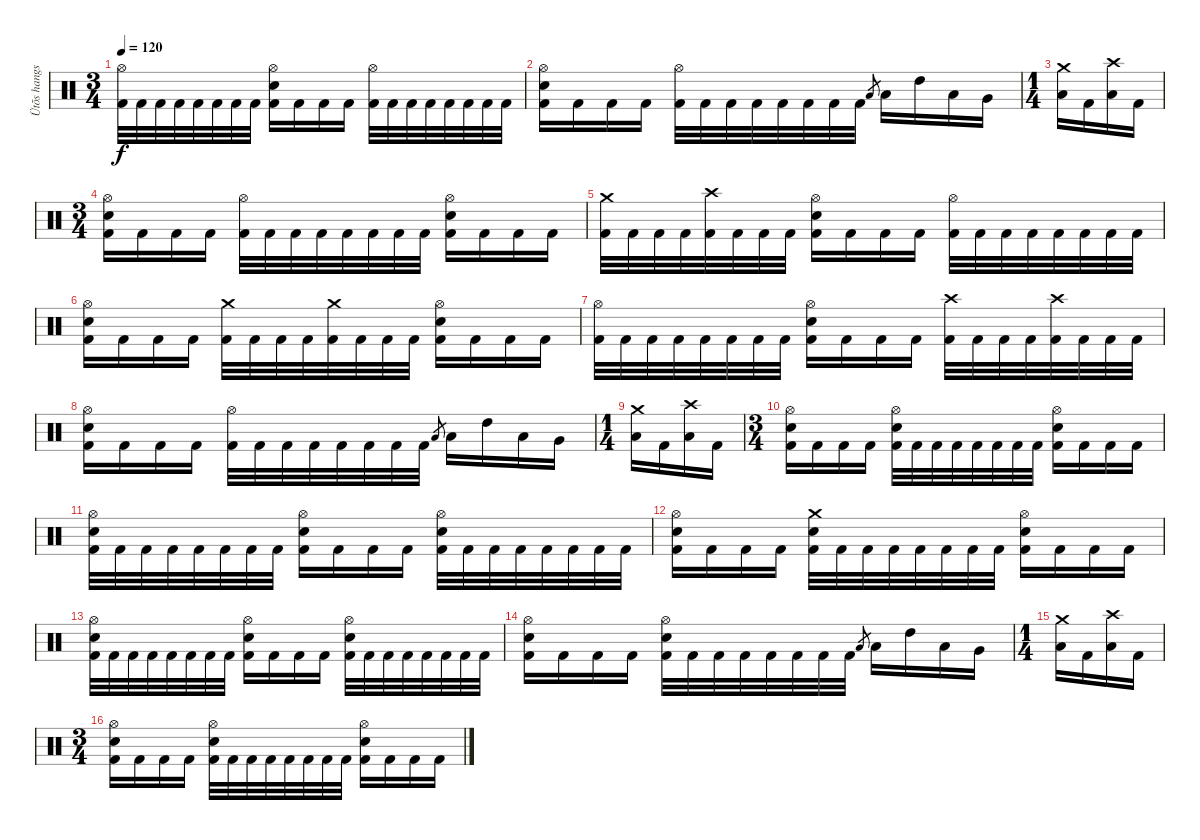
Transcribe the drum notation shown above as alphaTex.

\track ("Ütõs hangszer" "Ütõs hangs") {instrument percussion}
\staff {score}
\articulation defaults
\ts (3 4)
\tempo 120
\clef neutral
\ks c
("Hi-Hat (open)" "Kick (hit) 2").32{dy f} "Kick (hit) 2".32 "Kick (hit) 2".32 "Kick (hit) 2".32 "Kick (hit) 2".32 "Kick (hit) 2".32 "Kick (hit) 2".32 "Kick (hit) 2".32 ("Hi-Hat (open)" "Electric Snare (hit)" "Kick (hit) 2").16 "Kick (hit) 2".16 "Kick (hit) 2".16 "Kick (hit) 2".16 ("Hi-Hat (open)" "Kick (hit) 2").32 "Kick (hit) 2".32 "Kick (hit) 2".32 "Kick (hit) 2".32 "Kick (hit) 2".32 "Kick (hit) 2".32 "Kick (hit) 2".32 "Kick (hit) 2".32 |
("Hi-Hat (open)" "Electric Snare (hit)" "Kick (hit) 2").16 "Kick (hit) 2".16 "Kick (hit) 2".16 "Kick (hit) 2".16 ("Hi-Hat (open)" "Kick (hit) 2").32 "Kick (hit) 2".32 "Kick (hit) 2".32 "Kick (hit) 2".32 "Kick (hit) 2".32 "Kick (hit) 2".32 "Kick (hit) 2".32 "Kick (hit) 2".32 "Low Tom (hit)".8{gr} "Low Tom (hit)".16 "High Tom (hit)".16 "Low Tom (hit)".16 "Very Low Tom (hit)".16 |
\ts (1 4)
("Crash medium (hit)" "Low Floor Tom (hit)").16 "Kick (hit) 2".16 ("Crash high (hit)" "Low Floor Tom (hit)").16 "Kick (hit) 2".16 |
\ts (3 4)
("Hi-Hat (open)" "Electric Snare (hit)" "Kick (hit) 2").16 "Kick (hit) 2".16 "Kick (hit) 2".16 "Kick (hit) 2".16 ("Hi-Hat (open)" "Kick (hit) 2").32 "Kick (hit) 2".32 "Kick (hit) 2".32 "Kick (hit) 2".32 "Kick (hit) 2".32 "Kick (hit) 2".32 "Kick (hit) 2".32 "Kick (hit) 2".32 ("Hi-Hat (open)" "Electric Snare (hit)" "Kick (hit) 2").16 "Kick (hit) 2".16 "Kick (hit) 2".16 "Kick (hit) 2".16 |
("Crash medium (hit)" "Kick (hit) 2").32 "Kick (hit) 2".32 "Kick (hit) 2".32 "Kick (hit) 2".32 ("Crash high (hit)" "Kick (hit) 2").32 "Kick (hit) 2".32 "Kick (hit) 2".32 "Kick (hit) 2".32 ("Hi-Hat (open)" "Electric Snare (hit)" "Kick (hit) 2").16 "Kick (hit) 2".16 "Kick (hit) 2".16 "Kick (hit) 2".16 ("Hi-Hat (open)" "Kick (hit) 2").32 "Kick (hit) 2".32 "Kick (hit) 2".32 "Kick (hit) 2".32 "Kick (hit) 2".32 "Kick (hit) 2".32 "Kick (hit) 2".32 "Kick (hit) 2".32 |
("Hi-Hat (open)" "Electric Snare (hit)" "Kick (hit) 2").16 "Kick (hit) 2".16 "Kick (hit) 2".16 "Kick (hit) 2".16 ("Crash medium (hit)" "Kick (hit) 2").32 "Kick (hit) 2".32 "Kick (hit) 2".32 "Kick (hit) 2".32 ("Crash medium (hit)" "Kick (hit) 2").32 "Kick (hit) 2".32 "Kick (hit) 2".32 "Kick (hit) 2".32 ("Hi-Hat (open)" "Electric Snare (hit)" "Kick (hit) 2").16 "Kick (hit) 2".16 "Kick (hit) 2".16 "Kick (hit) 2".16 |
("Hi-Hat (open)" "Kick (hit) 2").32 "Kick (hit) 2".32 "Kick (hit) 2".32 "Kick (hit) 2".32 "Kick (hit) 2".32 "Kick (hit) 2".32 "Kick (hit) 2".32 "Kick (hit) 2".32 ("Hi-Hat (open)" "Electric Snare (hit)" "Kick (hit) 2").16 "Kick (hit) 2".16 "Kick (hit) 2".16 "Kick (hit) 2".16 ("Crash high (hit)" "Kick (hit) 2").32 "Kick (hit) 2".32 "Kick (hit) 2".32 "Kick (hit) 2".32 ("Crash high (hit)" "Kick (hit) 2").32 "Kick (hit) 2".32 "Kick (hit) 2".32 "Kick (hit) 2".32 |
("Hi-Hat (open)" "Electric Snare (hit)" "Kick (hit) 2").16 "Kick (hit) 2".16 "Kick (hit) 2".16 "Kick (hit) 2".16 ("Hi-Hat (open)" "Kick (hit) 2").32 "Kick (hit) 2".32 "Kick (hit) 2".32 "Kick (hit) 2".32 "Kick (hit) 2".32 "Kick (hit) 2".32 "Kick (hit) 2".32 "Kick (hit) 2".32 "Low Tom (hit)".8{gr} "Low Tom (hit)".16 "High Tom (hit)".16 "Low Tom (hit)".16 "Very Low Tom (hit)".16 |
\ts (1 4)
("Crash medium (hit)" "Low Floor Tom (hit)").16 "Kick (hit) 2".16 ("Crash high (hit)" "Low Floor Tom (hit)").16 "Kick (hit) 2".16 |
\ts (3 4)
("Hi-Hat (open)" "Electric Snare (hit)" "Kick (hit) 2").16 "Kick (hit) 2".16 "Kick (hit) 2".16 "Kick (hit) 2".16 ("Hi-Hat (open)" "Electric Snare (hit)" "Kick (hit) 2").32 "Kick (hit) 2".32 "Kick (hit) 2".32 "Kick (hit) 2".32 "Kick (hit) 2".32 "Kick (hit) 2".32 "Kick (hit) 2".32 "Kick (hit) 2".32 ("Hi-Hat (open)" "Electric Snare (hit)" "Kick (hit) 2").16 "Kick (hit) 2".16 "Kick (hit) 2".16 "Kick (hit) 2".16 |
("Hi-Hat (open)" "Electric Snare (hit)" "Kick (hit) 2").32 "Kick (hit) 2".32 "Kick (hit) 2".32 "Kick (hit) 2".32 "Kick (hit) 2".32 "Kick (hit) 2".32 "Kick (hit) 2".32 "Kick (hit) 2".32 ("Hi-Hat (open)" "Electric Snare (hit)" "Kick (hit) 2").16 "Kick (hit) 2".16 "Kick (hit) 2".16 "Kick (hit) 2".16 ("Hi-Hat (open)" "Electric Snare (hit)" "Kick (hit) 2").32 "Kick (hit) 2".32 "Kick (hit) 2".32 "Kick (hit) 2".32 "Kick (hit) 2".32 "Kick (hit) 2".32 "Kick (hit) 2".32 "Kick (hit) 2".32 |
("Hi-Hat (open)" "Electric Snare (hit)" "Kick (hit) 2").16 "Kick (hit) 2".16 "Kick (hit) 2".16 "Kick (hit) 2".16 ("Crash medium (hit)" "Electric Snare (hit)" "Kick (hit) 2").32 "Kick (hit) 2".32 "Kick (hit) 2".32 "Kick (hit) 2".32 "Kick (hit) 2".32 "Kick (hit) 2".32 "Kick (hit) 2".32 "Kick (hit) 2".32 ("Hi-Hat (open)" "Electric Snare (hit)" "Kick (hit) 2").16 "Kick (hit) 2".16 "Kick (hit) 2".16 "Kick (hit) 2".16 |
("Hi-Hat (open)" "Electric Snare (hit)" "Kick (hit) 2").32 "Kick (hit) 2".32 "Kick (hit) 2".32 "Kick (hit) 2".32 "Kick (hit) 2".32 "Kick (hit) 2".32 "Kick (hit) 2".32 "Kick (hit) 2".32 ("Hi-Hat (open)" "Electric Snare (hit)" "Kick (hit) 2").16 "Kick (hit) 2".16 "Kick (hit) 2".16 "Kick (hit) 2".16 ("Hi-Hat (open)" "Electric Snare (hit)" "Kick (hit) 2").32 "Kick (hit) 2".32 "Kick (hit) 2".32 "Kick (hit) 2".32 "Kick (hit) 2".32 "Kick (hit) 2".32 "Kick (hit) 2".32 "Kick (hit) 2".32 |
("Hi-Hat (open)" "Electric Snare (hit)" "Kick (hit) 2").16 "Kick (hit) 2".16 "Kick (hit) 2".16 "Kick (hit) 2".16 ("Hi-Hat (open)" "Electric Snare (hit)" "Kick (hit) 2").32 "Kick (hit) 2".32 "Kick (hit) 2".32 "Kick (hit) 2".32 "Kick (hit) 2".32 "Kick (hit) 2".32 "Kick (hit) 2".32 "Kick (hit) 2".32 "Low Tom (hit)".8{gr} "Low Tom (hit)".16 "High Tom (hit)".16 "Low Tom (hit)".16 "Very Low Tom (hit)".16 |
\ts (1 4)
("Crash medium (hit)" "Low Floor Tom (hit)").16 "Kick (hit) 2".16 ("Crash high (hit)" "Low Floor Tom (hit)").16 "Kick (hit) 2".16 |
\ts (3 4)
("Hi-Hat (open)" "Electric Snare (hit)" "Kick (hit) 2").16 "Kick (hit) 2".16 "Kick (hit) 2".16 "Kick (hit) 2".16 ("Hi-Hat (open)" "Electric Snare (hit)" "Kick (hit) 2").32 "Kick (hit) 2".32 "Kick (hit) 2".32 "Kick (hit) 2".32 "Kick (hit) 2".32 "Kick (hit) 2".32 "Kick (hit) 2".32 "Kick (hit) 2".32 ("Hi-Hat (open)" "Electric Snare (hit)" "Kick (hit) 2").16 "Kick (hit) 2".16 "Kick (hit) 2".16 "Kick (hit) 2".16
